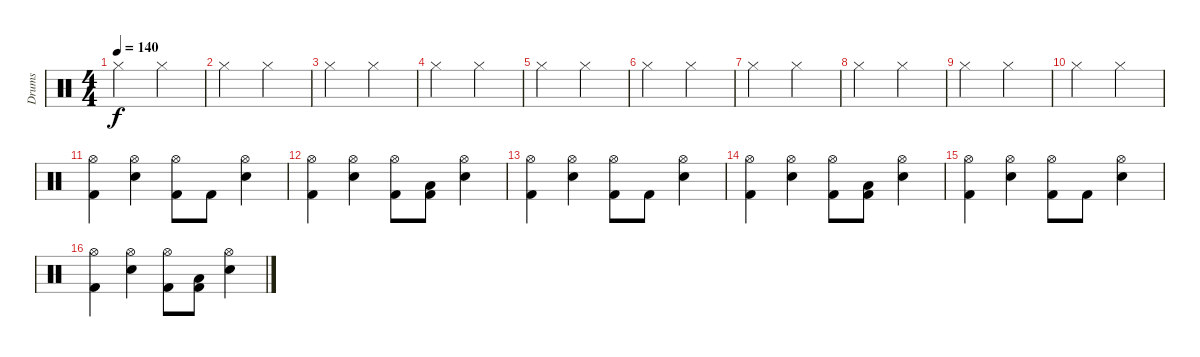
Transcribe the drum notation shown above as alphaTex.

\track ("Drums" "Drums") {instrument percussion}
\staff {score}
\articulation defaults
\ts (4 4)
\tempo 140
\clef neutral
\ks c "Hi-Hat (closed)".2{dy f} "Hi-Hat (closed)".2
|
"Hi-Hat (closed)".2 "Hi-Hat (closed)".2 |
"Hi-Hat (closed)".2 "Hi-Hat (closed)".2 |
"Hi-Hat (closed)".2 "Hi-Hat (closed)".2 |
"Hi-Hat (closed)".2 "Hi-Hat (closed)".2 |
"Hi-Hat (closed)".2 "Hi-Hat (closed)".2 |
"Hi-Hat (closed)".2 "Hi-Hat (closed)".2 |
"Hi-Hat (closed)".2 "Hi-Hat (closed)".2 |
"Hi-Hat (closed)".2 "Hi-Hat (closed)".2 |
"Hi-Hat (closed)".2 "Hi-Hat (closed)".2 |
("Hi-Hat (open)" "Kick (hit) 2").4 ("Hi-Hat (open)" "Electric Snare (hit)").4 ("Hi-Hat (open)" "Kick (hit) 2").8 "Kick (hit) 2".8 ("Hi-Hat (open)" "Electric Snare (hit)").4 |
("Hi-Hat (open)" "Kick (hit) 2").4 ("Hi-Hat (open)" "Electric Snare (hit)").4 ("Hi-Hat (open)" "Kick (hit) 2").8 ("Low Tom (hit)" "Kick (hit) 2").8 ("Hi-Hat (open)" "Electric Snare (hit)").4 |
("Hi-Hat (open)" "Kick (hit) 2").4 ("Hi-Hat (open)" "Electric Snare (hit)").4 ("Hi-Hat (open)" "Kick (hit) 2").8 "Kick (hit) 2".8 ("Hi-Hat (open)" "Electric Snare (hit)").4 |
("Hi-Hat (open)" "Kick (hit) 2").4 ("Hi-Hat (open)" "Electric Snare (hit)").4 ("Hi-Hat (open)" "Kick (hit) 2").8 ("Low Tom (hit)" "Kick (hit) 2").8 ("Hi-Hat (open)" "Electric Snare (hit)").4 |
("Hi-Hat (open)" "Kick (hit) 2").4 ("Hi-Hat (open)" "Electric Snare (hit)").4 ("Hi-Hat (open)" "Kick (hit) 2").8 "Kick (hit) 2".8 ("Hi-Hat (open)" "Electric Snare (hit)").4 |
("Hi-Hat (open)" "Kick (hit) 2").4 ("Hi-Hat (open)" "Electric Snare (hit)").4 ("Hi-Hat (open)" "Kick (hit) 2").8 ("Low Tom (hit)" "Kick (hit) 2").8 ("Hi-Hat (open)" "Electric Snare (hit)").4
